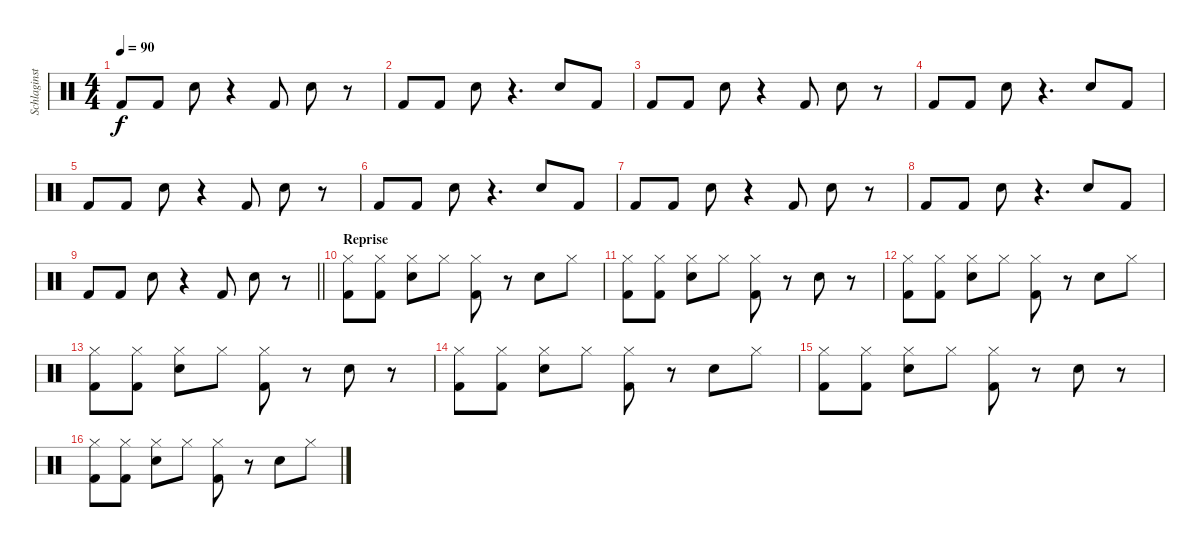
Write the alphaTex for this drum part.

\track ("Schlaginstrumente - Auswahl" "Schlaginst") {instrument percussion}
\staff {score}
\articulation defaults
\ts (4 4)
\tempo 90
\clef neutral
\ks c "Kick (hit) 2".8{dy f} "Kick (hit) 2".8 "Snare (hit) 2".8
r.4 "Kick (hit) 2".8 "Snare (hit) 2".8 r.8 |
"Kick (hit) 2".8 "Kick (hit) 2".8 "Snare (hit) 2".8 r.4{d} "Snare (hit) 2".8 "Kick (hit) 2".8 |
"Kick (hit) 2".8 "Kick (hit) 2".8 "Snare (hit) 2".8 r.4 "Kick (hit) 2".8 "Snare (hit) 2".8 r.8 |
"Kick (hit) 2".8 "Kick (hit) 2".8 "Snare (hit) 2".8 r.4{d} "Snare (hit) 2".8 "Kick (hit) 2".8 |
"Kick (hit) 2".8 "Kick (hit) 2".8 "Snare (hit) 2".8 r.4 "Kick (hit) 2".8 "Snare (hit) 2".8 r.8 |
"Kick (hit) 2".8 "Kick (hit) 2".8 "Snare (hit) 2".8 r.4{d} "Snare (hit) 2".8 "Kick (hit) 2".8 |
"Kick (hit) 2".8 "Kick (hit) 2".8 "Snare (hit) 2".8 r.4 "Kick (hit) 2".8 "Snare (hit) 2".8 r.8 |
"Kick (hit) 2".8 "Kick (hit) 2".8 "Snare (hit) 2".8 r.4{d} "Snare (hit) 2".8 "Kick (hit) 2".8 |
\barLineRight lightlight "Kick (hit) 2".8 "Kick (hit) 2".8 "Snare (hit) 2".8
r.4 "Kick (hit) 2".8 "Snare (hit) 2".8 r.8 |
\section ("" "Reprise")
("Kick (hit) 2" "Hi-Hat (closed)").8 ("Kick (hit) 2" "Hi-Hat (closed)").8 ("Snare (hit) 2" "Hi-Hat (closed)").8 "Hi-Hat (closed)".8 ("Kick (hit) 2" "Hi-Hat (closed)").8 r.8 "Snare (hit) 2".8 "Hi-Hat (closed)".8 |
("Kick (hit) 2" "Hi-Hat (closed)").8 ("Kick (hit) 2" "Hi-Hat (closed)").8 ("Snare (hit) 2" "Hi-Hat (closed)").8 "Hi-Hat (closed)".8 ("Kick (hit) 2" "Hi-Hat (closed)").8 r.8 "Snare (hit) 2".8 r.8 |
("Kick (hit) 2" "Hi-Hat (closed)").8 ("Kick (hit) 2" "Hi-Hat (closed)").8 ("Snare (hit) 2" "Hi-Hat (closed)").8 "Hi-Hat (closed)".8 ("Kick (hit) 2" "Hi-Hat (closed)").8 r.8 "Snare (hit) 2".8 "Hi-Hat (closed)".8 |
("Kick (hit) 2" "Hi-Hat (closed)").8 ("Kick (hit) 2" "Hi-Hat (closed)").8 ("Snare (hit) 2" "Hi-Hat (closed)").8 "Hi-Hat (closed)".8 ("Kick (hit) 2" "Hi-Hat (closed)").8 r.8 "Snare (hit) 2".8 r.8 |
("Kick (hit) 2" "Hi-Hat (closed)").8 ("Kick (hit) 2" "Hi-Hat (closed)").8 ("Snare (hit) 2" "Hi-Hat (closed)").8 "Hi-Hat (closed)".8 ("Kick (hit) 2" "Hi-Hat (closed)").8 r.8 "Snare (hit) 2".8 "Hi-Hat (closed)".8 |
("Kick (hit) 2" "Hi-Hat (closed)").8 ("Kick (hit) 2" "Hi-Hat (closed)").8 ("Snare (hit) 2" "Hi-Hat (closed)").8 "Hi-Hat (closed)".8 ("Kick (hit) 2" "Hi-Hat (closed)").8 r.8 "Snare (hit) 2".8 r.8 |
("Kick (hit) 2" "Hi-Hat (closed)").8 ("Kick (hit) 2" "Hi-Hat (closed)").8 ("Snare (hit) 2" "Hi-Hat (closed)").8 "Hi-Hat (closed)".8 ("Kick (hit) 2" "Hi-Hat (closed)").8 r.8 "Snare (hit) 2".8 "Hi-Hat (closed)".8
